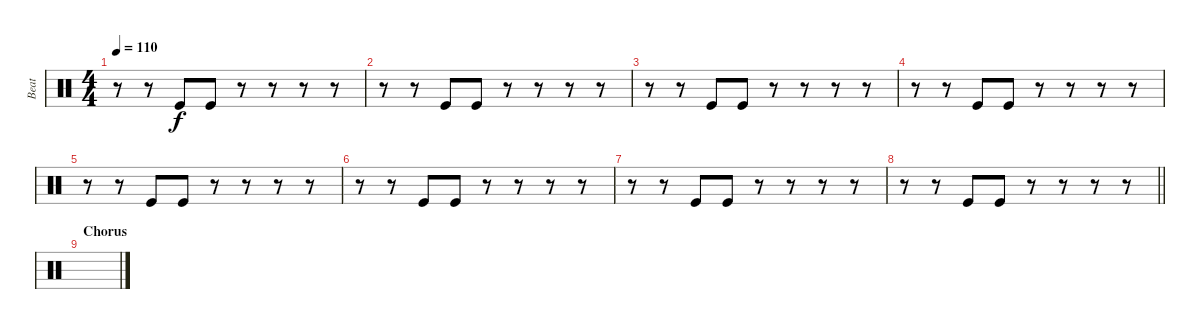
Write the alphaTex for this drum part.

\track ("Beat" "Beat") {instrument percussion}
\staff {score}
\articulation defaults
\ts (4 4)
\tempo 110
\clef neutral
\ks c
r.8{dy f} r.8 "Kick (hit)".8 "Kick (hit)".8 r.8 r.8 r.8 r.8 |
r.8 r.8 "Kick (hit)".8 "Kick (hit)".8 r.8 r.8 r.8 r.8 |
r.8 r.8 "Kick (hit)".8 "Kick (hit)".8 r.8 r.8 r.8 r.8 |
r.8 r.8 "Kick (hit)".8 "Kick (hit)".8 r.8 r.8 r.8 r.8 |
r.8 r.8 "Kick (hit)".8 "Kick (hit)".8 r.8 r.8 r.8 r.8 |
r.8 r.8 "Kick (hit)".8 "Kick (hit)".8 r.8 r.8 r.8 r.8 |
r.8 r.8 "Kick (hit)".8 "Kick (hit)".8 r.8 r.8 r.8 r.8 |
\barLineRight lightlight
r.8 r.8 "Kick (hit)".8 "Kick (hit)".8 r.8 r.8 r.8 r.8 |
\section ("" "Chorus")
